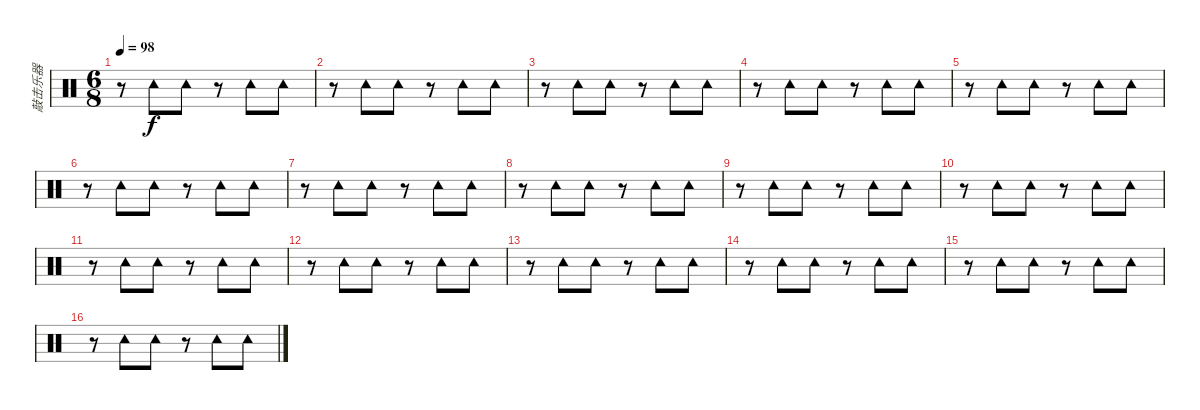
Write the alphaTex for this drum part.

\track ("敲击乐器" "敲击乐器") {instrument percussion}
\staff {score}
\articulation defaults
\ts (6 8)
\tempo 98
\clef neutral
\ks c
r.8{dy f} "Tambourine (hit)".8 "Tambourine (hit)".8 r.8 "Tambourine (hit)".8 "Tambourine (hit)".8 |
r.8 "Tambourine (hit)".8 "Tambourine (hit)".8 r.8 "Tambourine (hit)".8 "Tambourine (hit)".8 |
r.8 "Tambourine (hit)".8 "Tambourine (hit)".8 r.8 "Tambourine (hit)".8 "Tambourine (hit)".8 |
r.8 "Tambourine (hit)".8 "Tambourine (hit)".8 r.8 "Tambourine (hit)".8 "Tambourine (hit)".8 |
r.8 "Tambourine (hit)".8 "Tambourine (hit)".8 r.8 "Tambourine (hit)".8 "Tambourine (hit)".8 |
r.8 "Tambourine (hit)".8 "Tambourine (hit)".8 r.8 "Tambourine (hit)".8 "Tambourine (hit)".8 |
r.8 "Tambourine (hit)".8 "Tambourine (hit)".8 r.8 "Tambourine (hit)".8 "Tambourine (hit)".8 |
r.8 "Tambourine (hit)".8 "Tambourine (hit)".8 r.8 "Tambourine (hit)".8 "Tambourine (hit)".8 |
r.8 "Tambourine (hit)".8 "Tambourine (hit)".8 r.8 "Tambourine (hit)".8 "Tambourine (hit)".8 |
r.8 "Tambourine (hit)".8 "Tambourine (hit)".8 r.8 "Tambourine (hit)".8 "Tambourine (hit)".8 |
r.8 "Tambourine (hit)".8 "Tambourine (hit)".8 r.8 "Tambourine (hit)".8 "Tambourine (hit)".8 |
r.8 "Tambourine (hit)".8 "Tambourine (hit)".8 r.8 "Tambourine (hit)".8 "Tambourine (hit)".8 |
r.8 "Tambourine (hit)".8 "Tambourine (hit)".8 r.8 "Tambourine (hit)".8 "Tambourine (hit)".8 |
r.8 "Tambourine (hit)".8 "Tambourine (hit)".8 r.8 "Tambourine (hit)".8 "Tambourine (hit)".8 |
r.8 "Tambourine (hit)".8 "Tambourine (hit)".8 r.8 "Tambourine (hit)".8 "Tambourine (hit)".8 |
r.8 "Tambourine (hit)".8 "Tambourine (hit)".8 r.8 "Tambourine (hit)".8 "Tambourine (hit)".8
